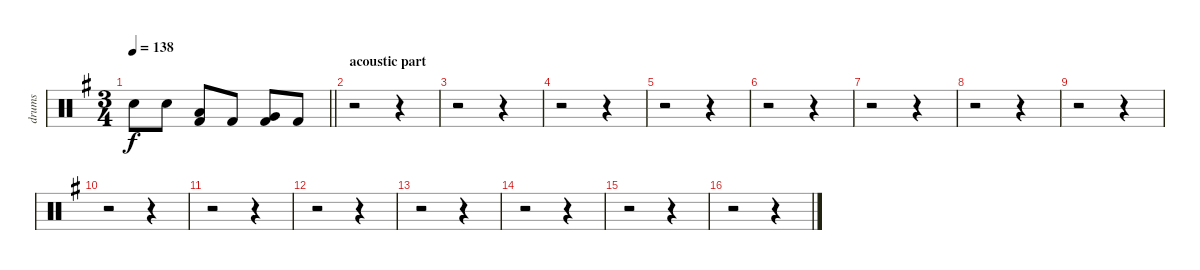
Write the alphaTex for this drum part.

\track ("drums" "drums") {instrument percussion}
\staff {score}
\articulation defaults
\ts (3 4)
\tempo 138
\clef neutral
\barLineRight lightlight
\ks eminor "Snare (hit) 2".8{dy f} "Snare (hit) 2".8
("Low Tom (hit)" "Kick (hit) 2").8 "Kick (hit) 2".8 ("Very Low Tom (hit)" "Kick (hit) 2").8 "Kick (hit) 2".8 |
\section ("" "acoustic part")
r.2 r.4 |
r.2 r.4 |
r.2 r.4 |
r.2 r.4 |
r.2 r.4 |
r.2 r.4 |
r.2 r.4 |
r.2 r.4 |
r.2 r.4 |
r.2 r.4 |
r.2 r.4 |
r.2 r.4 |
r.2 r.4 |
r.2 r.4 |
r.2 r.4
